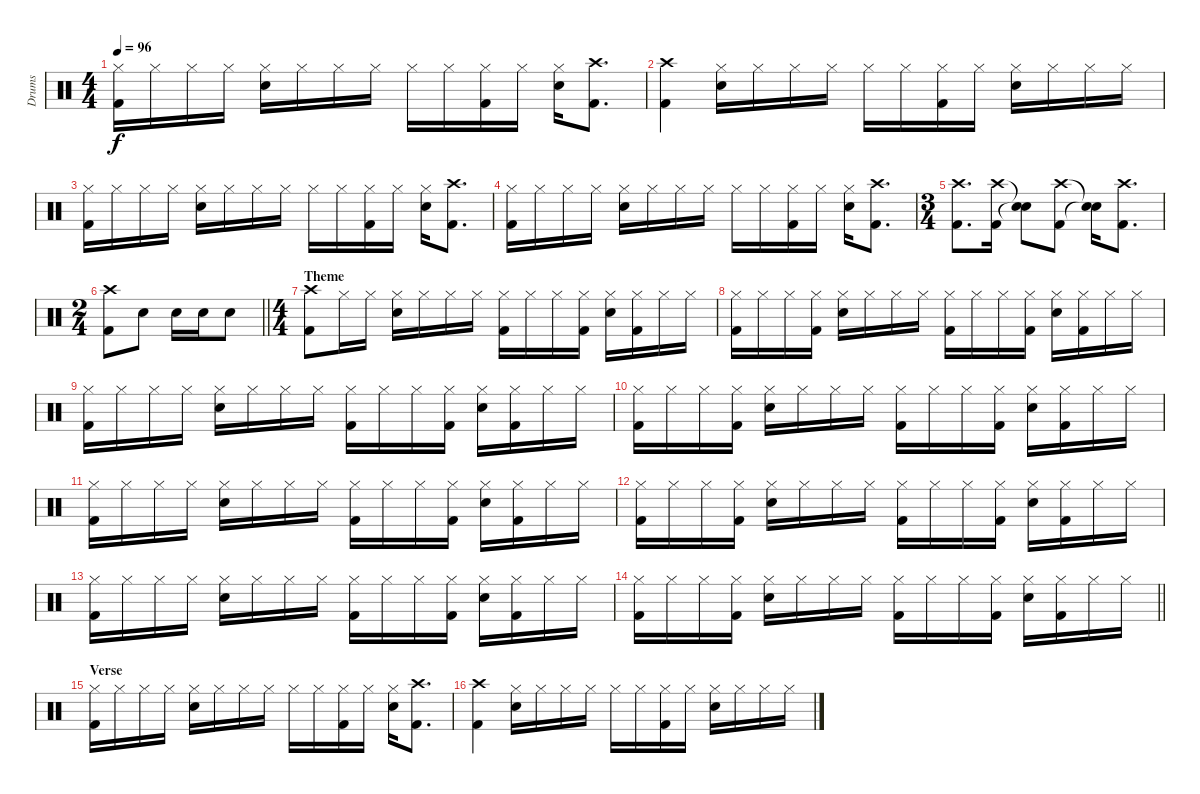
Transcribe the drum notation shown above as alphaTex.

\track ("Drums" "Drums") {instrument percussion}
\staff {score}
\articulation defaults
\ts (4 4)
\tempo 96
\clef neutral
\ks c
("Hi-Hat (closed)" "Kick (hit) 2").16{dy f} "Hi-Hat (closed)".16 "Hi-Hat (closed)".16 "Hi-Hat (closed)".16 ("Hi-Hat (closed)" "Electric Snare (hit)").16 "Hi-Hat (closed)".16 "Hi-Hat (closed)".16 "Hi-Hat (closed)".16 "Hi-Hat (closed)".16 "Hi-Hat (closed)".16 ("Hi-Hat (closed)" "Kick (hit) 2").16 "Hi-Hat (closed)".16 ("Hi-Hat (closed)" "Electric Snare (hit)").16 ("Crash high (hit)" "Kick (hit) 2").8{d} |
("Crash high (hit)" "Kick (hit) 2").4 ("Hi-Hat (closed)" "Electric Snare (hit)").16 "Hi-Hat (closed)".16 "Hi-Hat (closed)".16 "Hi-Hat (closed)".16 "Hi-Hat (closed)".16 "Hi-Hat (closed)".16 ("Hi-Hat (closed)" "Kick (hit) 2").16 "Hi-Hat (closed)".16 ("Hi-Hat (closed)" "Electric Snare (hit)").16 "Hi-Hat (closed)".16 "Hi-Hat (closed)".16 "Hi-Hat (closed)".16 |
("Hi-Hat (closed)" "Kick (hit) 2").16 "Hi-Hat (closed)".16 "Hi-Hat (closed)".16 "Hi-Hat (closed)".16 ("Hi-Hat (closed)" "Electric Snare (hit)").16 "Hi-Hat (closed)".16 "Hi-Hat (closed)".16 "Hi-Hat (closed)".16 "Hi-Hat (closed)".16 "Hi-Hat (closed)".16 ("Hi-Hat (closed)" "Kick (hit) 2").16 "Hi-Hat (closed)".16 ("Hi-Hat (closed)" "Electric Snare (hit)").16 ("Crash high (hit)" "Kick (hit) 2").8{d} |
("Hi-Hat (closed)" "Kick (hit) 2").16 "Hi-Hat (closed)".16 "Hi-Hat (closed)".16 "Hi-Hat (closed)".16 ("Hi-Hat (closed)" "Electric Snare (hit)").16 "Hi-Hat (closed)".16 "Hi-Hat (closed)".16 "Hi-Hat (closed)".16 "Hi-Hat (closed)".16 "Hi-Hat (closed)".16 ("Hi-Hat (closed)" "Kick (hit) 2").16 "Hi-Hat (closed)".16 ("Hi-Hat (closed)" "Electric Snare (hit)").16 ("Crash high (hit)" "Kick (hit) 2").8{d} |
\ts (3 4)
("Crash high (hit)" "Kick (hit) 2").8{d} ("Crash high (hit)" "Kick (hit) 2").16 ("Snare (hit)"{t} "Snare (hit)"{t}).8 ("Crash high (hit)" "Kick (hit) 2").8 ("Snare (hit)"{t} "Snare (hit)"{t}).16 ("Crash high (hit)" "Kick (hit) 2").8{d} |
\ts (2 4)
\barLineRight lightlight
("Crash high (hit)" "Kick (hit) 2").8 "Electric Snare (hit)".8 "Electric Snare (hit)".16 "Electric Snare (hit)".16 "Electric Snare (hit)".8 |
\ts (4 4)
\section ("" "Theme")
("Crash high (hit)" "Kick (hit) 2").8 "Hi-Hat (closed)".16 "Hi-Hat (closed)".16 ("Hi-Hat (closed)" "Electric Snare (hit)").16 "Hi-Hat (closed)".16 "Hi-Hat (closed)".16 "Hi-Hat (closed)".16 ("Hi-Hat (closed)" "Kick (hit) 2").16 "Hi-Hat (closed)".16 "Hi-Hat (closed)".16 ("Hi-Hat (closed)" "Kick (hit) 2").16 ("Hi-Hat (closed)" "Electric Snare (hit)").16 ("Hi-Hat (closed)" "Kick (hit) 2").16 "Hi-Hat (closed)".16 "Hi-Hat (closed)".16 |
("Hi-Hat (closed)" "Kick (hit) 2").16 "Hi-Hat (closed)".16 "Hi-Hat (closed)".16 ("Hi-Hat (closed)" "Kick (hit) 2").16 ("Hi-Hat (closed)" "Electric Snare (hit)").16 "Hi-Hat (closed)".16 "Hi-Hat (closed)".16 "Hi-Hat (closed)".16 ("Hi-Hat (closed)" "Kick (hit) 2").16 "Hi-Hat (closed)".16 "Hi-Hat (closed)".16 ("Hi-Hat (closed)" "Kick (hit) 2").16 ("Hi-Hat (closed)" "Electric Snare (hit)").16 ("Hi-Hat (closed)" "Kick (hit) 2").16 "Hi-Hat (closed)".16 "Hi-Hat (closed)".16 |
("Hi-Hat (closed)" "Kick (hit) 2").16 "Hi-Hat (closed)".16 "Hi-Hat (closed)".16 "Hi-Hat (closed)".16 ("Hi-Hat (closed)" "Electric Snare (hit)").16 "Hi-Hat (closed)".16 "Hi-Hat (closed)".16 "Hi-Hat (closed)".16 ("Hi-Hat (closed)" "Kick (hit) 2").16 "Hi-Hat (closed)".16 "Hi-Hat (closed)".16 ("Hi-Hat (closed)" "Kick (hit) 2").16 ("Hi-Hat (closed)" "Electric Snare (hit)").16 ("Hi-Hat (closed)" "Kick (hit) 2").16 "Hi-Hat (closed)".16 "Hi-Hat (closed)".16 |
("Hi-Hat (closed)" "Kick (hit) 2").16 "Hi-Hat (closed)".16 "Hi-Hat (closed)".16 ("Hi-Hat (closed)" "Kick (hit) 2").16 ("Hi-Hat (closed)" "Electric Snare (hit)").16 "Hi-Hat (closed)".16 "Hi-Hat (closed)".16 "Hi-Hat (closed)".16 ("Hi-Hat (closed)" "Kick (hit) 2").16 "Hi-Hat (closed)".16 "Hi-Hat (closed)".16 ("Hi-Hat (closed)" "Kick (hit) 2").16 ("Hi-Hat (closed)" "Electric Snare (hit)").16 ("Hi-Hat (closed)" "Kick (hit) 2").16 "Hi-Hat (closed)".16 "Hi-Hat (closed)".16 |
("Hi-Hat (closed)" "Kick (hit) 2").16 "Hi-Hat (closed)".16 "Hi-Hat (closed)".16 "Hi-Hat (closed)".16 ("Hi-Hat (closed)" "Electric Snare (hit)").16 "Hi-Hat (closed)".16 "Hi-Hat (closed)".16 "Hi-Hat (closed)".16 ("Hi-Hat (closed)" "Kick (hit) 2").16 "Hi-Hat (closed)".16 "Hi-Hat (closed)".16 ("Hi-Hat (closed)" "Kick (hit) 2").16 ("Hi-Hat (closed)" "Electric Snare (hit)").16 ("Hi-Hat (closed)" "Kick (hit) 2").16 "Hi-Hat (closed)".16 "Hi-Hat (closed)".16 |
("Hi-Hat (closed)" "Kick (hit) 2").16 "Hi-Hat (closed)".16 "Hi-Hat (closed)".16 ("Hi-Hat (closed)" "Kick (hit) 2").16 ("Hi-Hat (closed)" "Electric Snare (hit)").16 "Hi-Hat (closed)".16 "Hi-Hat (closed)".16 "Hi-Hat (closed)".16 ("Hi-Hat (closed)" "Kick (hit) 2").16 "Hi-Hat (closed)".16 "Hi-Hat (closed)".16 ("Hi-Hat (closed)" "Kick (hit) 2").16 ("Hi-Hat (closed)" "Electric Snare (hit)").16 ("Hi-Hat (closed)" "Kick (hit) 2").16 "Hi-Hat (closed)".16 "Hi-Hat (closed)".16 |
("Hi-Hat (closed)" "Kick (hit) 2").16 "Hi-Hat (closed)".16 "Hi-Hat (closed)".16 "Hi-Hat (closed)".16 ("Hi-Hat (closed)" "Electric Snare (hit)").16 "Hi-Hat (closed)".16 "Hi-Hat (closed)".16 "Hi-Hat (closed)".16 ("Hi-Hat (closed)" "Kick (hit) 2").16 "Hi-Hat (closed)".16 "Hi-Hat (closed)".16 ("Hi-Hat (closed)" "Kick (hit) 2").16 ("Hi-Hat (closed)" "Electric Snare (hit)").16 ("Hi-Hat (closed)" "Kick (hit) 2").16 "Hi-Hat (closed)".16 "Hi-Hat (closed)".16 |
\barLineRight lightlight
("Hi-Hat (closed)" "Kick (hit) 2").16 "Hi-Hat (closed)".16 "Hi-Hat (closed)".16 ("Hi-Hat (closed)" "Kick (hit) 2").16 ("Hi-Hat (closed)" "Electric Snare (hit)").16 "Hi-Hat (closed)".16 "Hi-Hat (closed)".16 "Hi-Hat (closed)".16 ("Hi-Hat (closed)" "Kick (hit) 2").16 "Hi-Hat (closed)".16 "Hi-Hat (closed)".16 ("Hi-Hat (closed)" "Kick (hit) 2").16 ("Hi-Hat (closed)" "Electric Snare (hit)").16 ("Hi-Hat (closed)" "Kick (hit) 2").16 "Hi-Hat (closed)".16 "Hi-Hat (closed)".16 |
\section ("" "Verse")
("Hi-Hat (closed)" "Kick (hit) 2").16 "Hi-Hat (closed)".16 "Hi-Hat (closed)".16 "Hi-Hat (closed)".16 ("Hi-Hat (closed)" "Electric Snare (hit)").16 "Hi-Hat (closed)".16 "Hi-Hat (closed)".16 "Hi-Hat (closed)".16 "Hi-Hat (closed)".16 "Hi-Hat (closed)".16 ("Hi-Hat (closed)" "Kick (hit) 2").16 "Hi-Hat (closed)".16 ("Hi-Hat (closed)" "Electric Snare (hit)").16 ("Crash high (hit)" "Kick (hit) 2").8{d} |
("Crash high (hit)" "Kick (hit) 2").4 ("Hi-Hat (closed)" "Electric Snare (hit)").16 "Hi-Hat (closed)".16 "Hi-Hat (closed)".16 "Hi-Hat (closed)".16 "Hi-Hat (closed)".16 "Hi-Hat (closed)".16 ("Hi-Hat (closed)" "Kick (hit) 2").16 "Hi-Hat (closed)".16 ("Hi-Hat (closed)" "Electric Snare (hit)").16 "Hi-Hat (closed)".16 "Hi-Hat (closed)".16 "Hi-Hat (closed)".16
